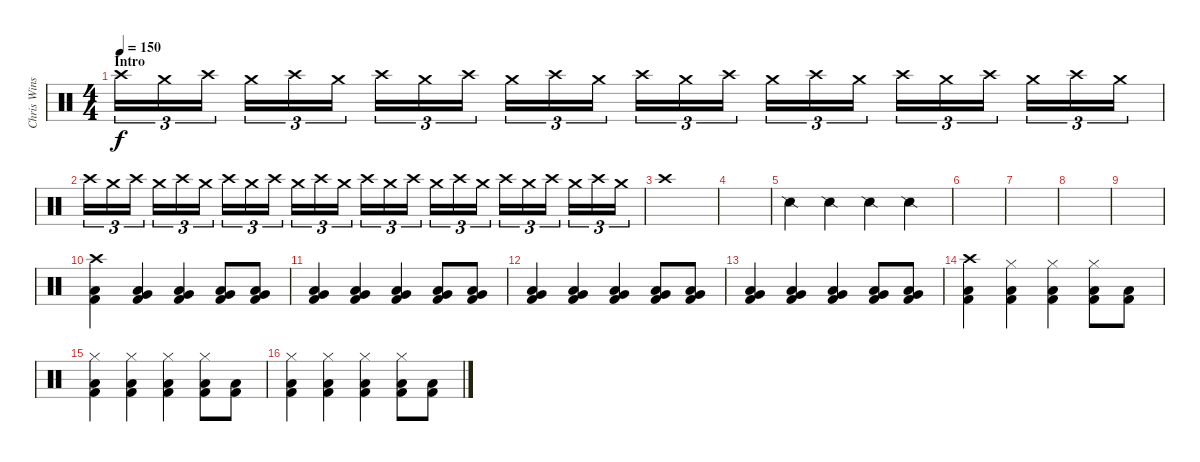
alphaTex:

\track ("Chris Winship (Drums)" "Chris Wins") {instrument percussion}
\staff {score}
\articulation defaults
\ts (4 4)
\section ("" "Intro")
\tempo 150
\clef neutral
\ks c "Crash high (hit)".16{tu (3 2) dy f volume 14} "Crash medium (hit)".16{tu (3 2)} "Crash high (hit)".16{tu (3 2)} "Crash medium (hit)".16{tu (3 2)} "Crash high (hit)".16{tu (3 2)} "Crash medium (hit)".16{tu (3 2)} "Crash high (hit)".16{tu (3 2)} "Crash medium (hit)".16{tu (3 2)} "Crash high (hit)".16{tu (3 2)} "Crash medium (hit)".16{tu (3 2)} "Crash high (hit)".16{tu (3 2)} "Crash medium (hit)".16{tu (3 2)} "Crash high (hit)".16{tu (3 2)} "Crash medium (hit)".16{tu (3 2)} "Crash high (hit)".16{tu (3 2)} "Crash medium (hit)".16{tu (3 2)} "Crash high (hit)".16{tu (3 2)} "Crash medium (hit)".16{tu (3 2)} "Crash high (hit)".16{tu (3 2)} "Crash medium (hit)".16{tu (3 2)} "Crash high (hit)".16{tu (3 2)} "Crash medium (hit)".16{tu (3 2)} "Crash high (hit)".16{tu (3 2)} "Crash medium (hit)".16{tu (3 2)}
|
"Crash high (hit)".16{tu (3 2)} "Crash medium (hit)".16{tu (3 2)} "Crash high (hit)".16{tu (3 2)} "Crash medium (hit)".16{tu (3 2)} "Crash high (hit)".16{tu (3 2)} "Crash medium (hit)".16{tu (3 2)} "Crash high (hit)".16{tu (3 2)} "Crash medium (hit)".16{tu (3 2)} "Crash high (hit)".16{tu (3 2)} "Crash medium (hit)".16{tu (3 2)} "Crash high (hit)".16{tu (3 2)} "Crash medium (hit)".16{tu (3 2)} "Crash high (hit)".16{tu (3 2)} "Crash medium (hit)".16{tu (3 2)} "Crash high (hit)".16{tu (3 2)} "Crash medium (hit)".16{tu (3 2)} "Crash high (hit)".16{tu (3 2)} "Crash medium (hit)".16{tu (3 2)} "Crash high (hit)".16{tu (3 2)} "Crash medium (hit)".16{tu (3 2)} "Crash high (hit)".16{tu (3 2)} "Crash medium (hit)".16{tu (3 2)} "Crash high (hit)".16{tu (3 2)} "Crash medium (hit)".16{tu (3 2)} |
"Crash high (hit)".1 |
|
"Snare (side stick) 2".4 "Snare (side stick) 2".4 "Snare (side stick) 2".4 "Snare (side stick) 2".4 |
|
|
|
|
("Crash high (hit)" "Low Floor Tom (hit)" "Kick (hit) 2").4 ("Very Low Tom (hit)" "Low Floor Tom (hit)" "Kick (hit) 2").4 ("Very Low Tom (hit)" "Low Floor Tom (hit)" "Kick (hit) 2").4 ("Very Low Tom (hit)" "Low Floor Tom (hit)" "Kick (hit) 2").8 ("Very Low Tom (hit)" "Low Floor Tom (hit)" "Kick (hit) 2").8 |
("Very Low Tom (hit)" "Low Floor Tom (hit)" "Kick (hit) 2").4 ("Very Low Tom (hit)" "Low Floor Tom (hit)" "Kick (hit) 2").4 ("Very Low Tom (hit)" "Low Floor Tom (hit)" "Kick (hit) 2").4 ("Very Low Tom (hit)" "Low Floor Tom (hit)" "Kick (hit) 2").8 ("Very Low Tom (hit)" "Low Floor Tom (hit)" "Kick (hit) 2").8 |
("Very Low Tom (hit)" "Low Floor Tom (hit)" "Kick (hit) 2").4 ("Very Low Tom (hit)" "Low Floor Tom (hit)" "Kick (hit) 2").4 ("Very Low Tom (hit)" "Low Floor Tom (hit)" "Kick (hit) 2").4 ("Very Low Tom (hit)" "Low Floor Tom (hit)" "Kick (hit) 2").8 ("Very Low Tom (hit)" "Low Floor Tom (hit)" "Kick (hit) 2").8 |
("Very Low Tom (hit)" "Low Floor Tom (hit)" "Kick (hit) 2").4 ("Very Low Tom (hit)" "Low Floor Tom (hit)" "Kick (hit) 2").4 ("Very Low Tom (hit)" "Low Floor Tom (hit)" "Kick (hit) 2").4 ("Very Low Tom (hit)" "Low Floor Tom (hit)" "Kick (hit) 2").8 ("Very Low Tom (hit)" "Low Floor Tom (hit)" "Kick (hit) 2").8 |
("Crash high (hit)" "Low Floor Tom (hit)" "Kick (hit) 2").4 ("Hi-Hat (closed)" "Low Floor Tom (hit)" "Kick (hit) 2").4 ("Hi-Hat (closed)" "Low Floor Tom (hit)" "Kick (hit) 2").4 ("Hi-Hat (closed)" "Low Floor Tom (hit)" "Kick (hit) 2").8 ("Low Floor Tom (hit)" "Kick (hit) 2").8 |
("Hi-Hat (closed)" "Low Floor Tom (hit)" "Kick (hit) 2").4 ("Hi-Hat (closed)" "Low Floor Tom (hit)" "Kick (hit) 2").4 ("Hi-Hat (closed)" "Low Floor Tom (hit)" "Kick (hit) 2").4 ("Hi-Hat (closed)" "Low Floor Tom (hit)" "Kick (hit) 2").8 ("Low Floor Tom (hit)" "Kick (hit) 2").8 |
("Hi-Hat (closed)" "Low Floor Tom (hit)" "Kick (hit) 2").4 ("Hi-Hat (closed)" "Low Floor Tom (hit)" "Kick (hit) 2").4 ("Hi-Hat (closed)" "Low Floor Tom (hit)" "Kick (hit) 2").4 ("Hi-Hat (closed)" "Low Floor Tom (hit)" "Kick (hit) 2").8 ("Low Floor Tom (hit)" "Kick (hit) 2").8
